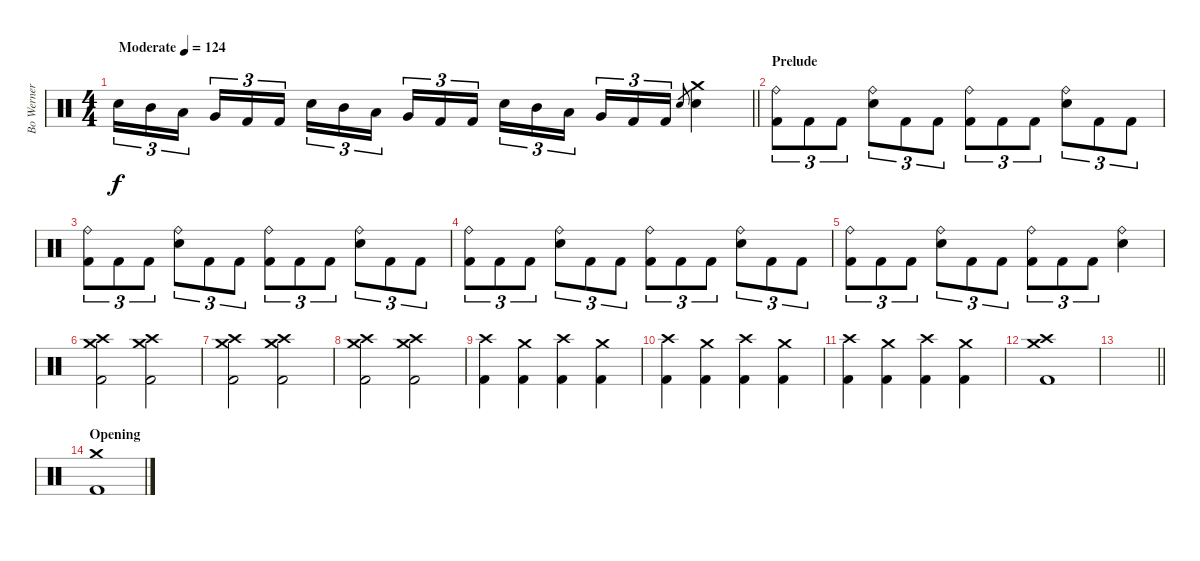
\track ("Bo Werner " "Bo Werner ") {instrument percussion}
\staff {score}
\articulation defaults
\ts (4 4)
\tempo (124 "Moderate")
\clef neutral
\barLineRight lightlight
\ks c "Snare (hit) 2".16{tu (3 2) dy f} "Mid Tom (hit)".16{tu (3 2)} "Low Tom (hit)".16{tu (3 2) beam splitsecondary} "Very Low Tom (hit)".16{tu (3 2)} "Kick (hit) 2".16{tu (3 2)} "Kick (hit) 2".16{tu (3 2)} "Snare (hit) 2".16{tu (3 2)} "Mid Tom (hit)".16{tu (3 2)} "Low Tom (hit)".16{tu (3 2) beam splitsecondary} "Very Low Tom (hit)".16{tu (3 2)} "Kick (hit) 2".16{tu (3 2)} "Kick (hit) 2".16{tu (3 2)} "Snare (hit) 2".16{tu (3 2)} "Mid Tom (hit)".16{tu (3 2)} "Low Tom (hit)".16{tu (3 2) beam splitsecondary} "Very Low Tom (hit)".16{tu (3 2)} "Kick (hit) 2".16{tu (3 2)} "Kick (hit) 2".16{tu (3 2)} "Snare (hit) 2".8{gr}
("Crash medium (hit)" "Snare (hit) 2").4 |
\section ("" "Prelude")
("Ride (bell)" "Kick (hit) 2").8{tu (3 2)} "Kick (hit) 2".8{tu (3 2)} "Kick (hit) 2".8{tu (3 2)} ("Ride (bell)" "Snare (hit) 2").8{tu (3 2)} "Kick (hit) 2".8{tu (3 2)} "Kick (hit) 2".8{tu (3 2)} ("Ride (bell)" "Kick (hit) 2").8{tu (3 2)} "Kick (hit) 2".8{tu (3 2)} "Kick (hit) 2".8{tu (3 2)} ("Ride (bell)" "Snare (hit) 2").8{tu (3 2)} "Kick (hit) 2".8{tu (3 2)} "Kick (hit) 2".8{tu (3 2)} |
("Ride (bell)" "Kick (hit) 2").8{tu (3 2)} "Kick (hit) 2".8{tu (3 2)} "Kick (hit) 2".8{tu (3 2)} ("Ride (bell)" "Snare (hit) 2").8{tu (3 2)} "Kick (hit) 2".8{tu (3 2)} "Kick (hit) 2".8{tu (3 2)} ("Ride (bell)" "Kick (hit) 2").8{tu (3 2)} "Kick (hit) 2".8{tu (3 2)} "Kick (hit) 2".8{tu (3 2)} ("Ride (bell)" "Snare (hit) 2").8{tu (3 2)} "Kick (hit) 2".8{tu (3 2)} "Kick (hit) 2".8{tu (3 2)} |
("Ride (bell)" "Kick (hit) 2").8{tu (3 2)} "Kick (hit) 2".8{tu (3 2)} "Kick (hit) 2".8{tu (3 2)} ("Ride (bell)" "Snare (hit) 2").8{tu (3 2)} "Kick (hit) 2".8{tu (3 2)} "Kick (hit) 2".8{tu (3 2)} ("Ride (bell)" "Kick (hit) 2").8{tu (3 2)} "Kick (hit) 2".8{tu (3 2)} "Kick (hit) 2".8{tu (3 2)} ("Ride (bell)" "Snare (hit) 2").8{tu (3 2)} "Kick (hit) 2".8{tu (3 2)} "Kick (hit) 2".8{tu (3 2)} |
("Ride (bell)" "Kick (hit) 2").8{tu (3 2)} "Kick (hit) 2".8{tu (3 2)} "Kick (hit) 2".8{tu (3 2)} ("Ride (bell)" "Snare (hit) 2").8{tu (3 2)} "Kick (hit) 2".8{tu (3 2)} "Kick (hit) 2".8{tu (3 2)} ("Ride (bell)" "Kick (hit) 2").8{tu (3 2)} "Kick (hit) 2".8{tu (3 2)} "Kick (hit) 2".8{tu (3 2)} ("Ride (bell)" "Snare (hit) 2").4 |
("Crash medium (hit)" "Crash high (hit)" "Kick (hit) 2").2 ("Crash high (hit)" "Crash medium (hit)" "Kick (hit) 2").2 |
("Crash medium (hit)" "Crash high (hit)" "Kick (hit) 2").2 ("Crash high (hit)" "Crash medium (hit)" "Kick (hit) 2").2 |
("Crash medium (hit)" "Crash high (hit)" "Kick (hit) 2").2 ("Crash high (hit)" "Crash medium (hit)" "Kick (hit) 2").2 |
("Crash high (hit)" "Kick (hit) 2").4 ("Crash medium (hit)" "Kick (hit) 2").4 ("Crash high (hit)" "Kick (hit) 2").4 ("Crash medium (hit)" "Kick (hit) 2").4 |
("Crash high (hit)" "Kick (hit) 2").4 ("Crash medium (hit)" "Kick (hit) 2").4 ("Crash high (hit)" "Kick (hit) 2").4 ("Crash medium (hit)" "Kick (hit) 2").4 |
("Crash high (hit)" "Kick (hit) 2").4 ("Crash medium (hit)" "Kick (hit) 2").4 ("Crash high (hit)" "Kick (hit) 2").4 ("Crash medium (hit)" "Kick (hit) 2").4 |
("Crash medium (hit)" "Crash high (hit)" "Kick (hit) 2").1 |
\barLineRight lightlight
|
\section ("" "Opening")
("Crash medium (hit)" "Kick (hit) 2").1
